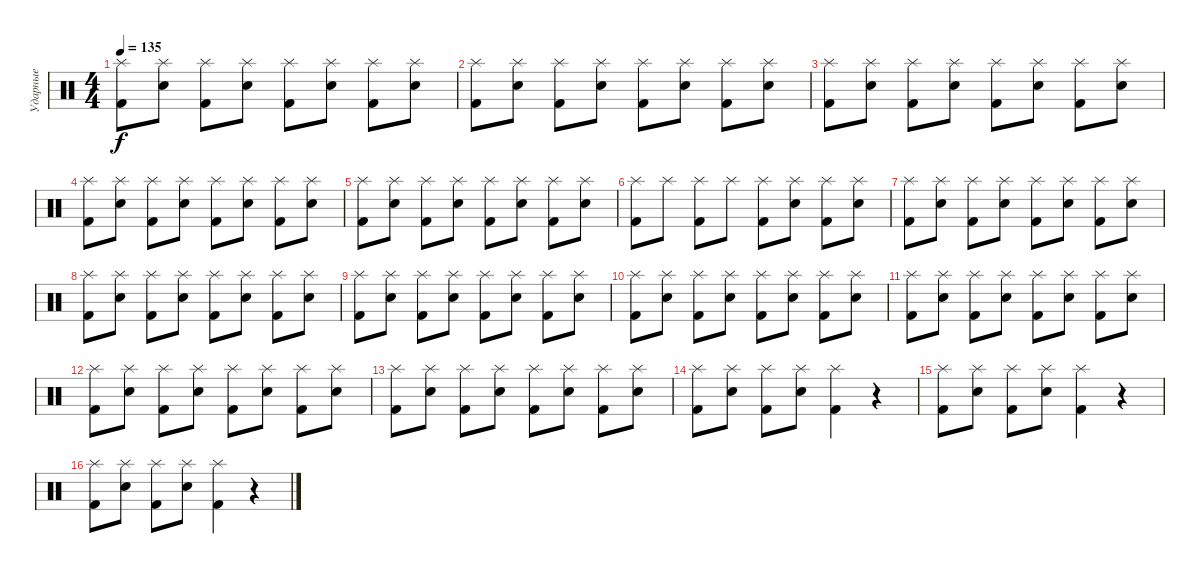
\track ("Ударные" "Ударные") {instrument percussion}
\staff {score}
\articulation defaults
\ts (4 4)
\tempo 135
\clef neutral
\ks c
("Splash (hit)" "Kick (hit) 2").8{dy f} ("Splash (hit)" "Snare (hit) 2").8 ("Splash (hit)" "Kick (hit) 2").8 ("Splash (hit)" "Snare (hit) 2").8 ("Splash (hit)" "Kick (hit) 2").8 ("Splash (hit)" "Snare (hit) 2").8 ("Splash (hit)" "Kick (hit) 2").8 ("Splash (hit)" "Snare (hit) 2").8 |
("Splash (hit)" "Kick (hit) 2").8 ("Splash (hit)" "Snare (hit) 2").8 ("Splash (hit)" "Kick (hit) 2").8 ("Splash (hit)" "Snare (hit) 2").8 ("Splash (hit)" "Kick (hit) 2").8 ("Splash (hit)" "Snare (hit) 2").8 ("Splash (hit)" "Kick (hit) 2").8 ("Splash (hit)" "Snare (hit) 2").8 |
("Splash (hit)" "Kick (hit) 2").8 ("Splash (hit)" "Snare (hit) 2").8 ("Splash (hit)" "Kick (hit) 2").8 ("Splash (hit)" "Snare (hit) 2").8 ("Splash (hit)" "Kick (hit) 2").8 ("Splash (hit)" "Snare (hit) 2").8 ("Splash (hit)" "Kick (hit) 2").8 ("Splash (hit)" "Snare (hit) 2").8 |
("Splash (hit)" "Kick (hit) 2").8 ("Splash (hit)" "Snare (hit) 2").8 ("Splash (hit)" "Kick (hit) 2").8 ("Splash (hit)" "Snare (hit) 2").8 ("Splash (hit)" "Kick (hit) 2").8 ("Splash (hit)" "Snare (hit) 2").8 ("Splash (hit)" "Kick (hit) 2").8 ("Splash (hit)" "Snare (hit) 2").8 |
("Splash (hit)" "Kick (hit) 2").8 ("Splash (hit)" "Snare (hit) 2").8 ("Splash (hit)" "Kick (hit) 2").8 ("Splash (hit)" "Snare (hit) 2").8 ("Splash (hit)" "Kick (hit) 2").8 ("Splash (hit)" "Snare (hit) 2").8 ("Splash (hit)" "Kick (hit) 2").8 ("Splash (hit)" "Snare (hit) 2").8 |
("Splash (hit)" "Kick (hit) 2").8 "Splash (hit)".8 ("Splash (hit)" "Kick (hit) 2").8 "Splash (hit)".8 ("Splash (hit)" "Kick (hit) 2").8 ("Splash (hit)" "Snare (hit) 2").8 ("Splash (hit)" "Kick (hit) 2").8 ("Splash (hit)" "Snare (hit) 2").8 |
("Splash (hit)" "Kick (hit) 2").8 ("Splash (hit)" "Snare (hit) 2").8 ("Splash (hit)" "Kick (hit) 2").8 ("Splash (hit)" "Snare (hit) 2").8 ("Splash (hit)" "Kick (hit) 2").8 ("Splash (hit)" "Snare (hit) 2").8 ("Splash (hit)" "Kick (hit) 2").8 ("Splash (hit)" "Snare (hit) 2").8 |
("Splash (hit)" "Kick (hit) 2").8 ("Splash (hit)" "Snare (hit) 2").8 ("Splash (hit)" "Kick (hit) 2").8 ("Splash (hit)" "Snare (hit) 2").8 ("Splash (hit)" "Kick (hit) 2").8 ("Splash (hit)" "Snare (hit) 2").8 ("Splash (hit)" "Kick (hit) 2").8 ("Splash (hit)" "Snare (hit) 2").8 |
("Splash (hit)" "Kick (hit) 2").8 ("Splash (hit)" "Snare (hit) 2").8 ("Splash (hit)" "Kick (hit) 2").8 ("Splash (hit)" "Snare (hit) 2").8 ("Splash (hit)" "Kick (hit) 2").8 ("Splash (hit)" "Snare (hit) 2").8 ("Splash (hit)" "Kick (hit) 2").8 ("Splash (hit)" "Snare (hit) 2").8 |
("Splash (hit)" "Kick (hit) 2").8 ("Splash (hit)" "Snare (hit) 2").8 ("Splash (hit)" "Kick (hit) 2").8 ("Splash (hit)" "Snare (hit) 2").8 ("Splash (hit)" "Kick (hit) 2").8 ("Splash (hit)" "Snare (hit) 2").8 ("Splash (hit)" "Kick (hit) 2").8 ("Splash (hit)" "Snare (hit) 2").8 |
("Splash (hit)" "Kick (hit) 2").8 ("Splash (hit)" "Snare (hit) 2").8 ("Splash (hit)" "Kick (hit) 2").8 ("Splash (hit)" "Snare (hit) 2").8 ("Splash (hit)" "Kick (hit) 2").8 ("Splash (hit)" "Snare (hit) 2").8 ("Splash (hit)" "Kick (hit) 2").8 ("Splash (hit)" "Snare (hit) 2").8 |
("Splash (hit)" "Kick (hit) 2").8 ("Splash (hit)" "Snare (hit) 2").8 ("Splash (hit)" "Kick (hit) 2").8 ("Splash (hit)" "Snare (hit) 2").8 ("Splash (hit)" "Kick (hit) 2").8 ("Splash (hit)" "Snare (hit) 2").8 ("Splash (hit)" "Kick (hit) 2").8 ("Splash (hit)" "Snare (hit) 2").8 |
("Splash (hit)" "Kick (hit) 2").8 ("Splash (hit)" "Snare (hit) 2").8 ("Splash (hit)" "Kick (hit) 2").8 ("Splash (hit)" "Snare (hit) 2").8 ("Splash (hit)" "Kick (hit) 2").8 ("Splash (hit)" "Snare (hit) 2").8 ("Splash (hit)" "Kick (hit) 2").8 ("Splash (hit)" "Snare (hit) 2").8 |
("Splash (hit)" "Kick (hit) 2").8 ("Splash (hit)" "Snare (hit) 2").8 ("Splash (hit)" "Kick (hit) 2").8 ("Splash (hit)" "Snare (hit) 2").8 ("Splash (hit)" "Kick (hit) 2").4 r.4 |
("Splash (hit)" "Kick (hit) 2").8 ("Splash (hit)" "Snare (hit) 2").8 ("Splash (hit)" "Kick (hit) 2").8 ("Splash (hit)" "Snare (hit) 2").8 ("Splash (hit)" "Kick (hit) 2").4 r.4 |
("Splash (hit)" "Kick (hit) 2").8 ("Splash (hit)" "Snare (hit) 2").8 ("Splash (hit)" "Kick (hit) 2").8 ("Splash (hit)" "Snare (hit) 2").8 ("Splash (hit)" "Kick (hit) 2").4 r.4
